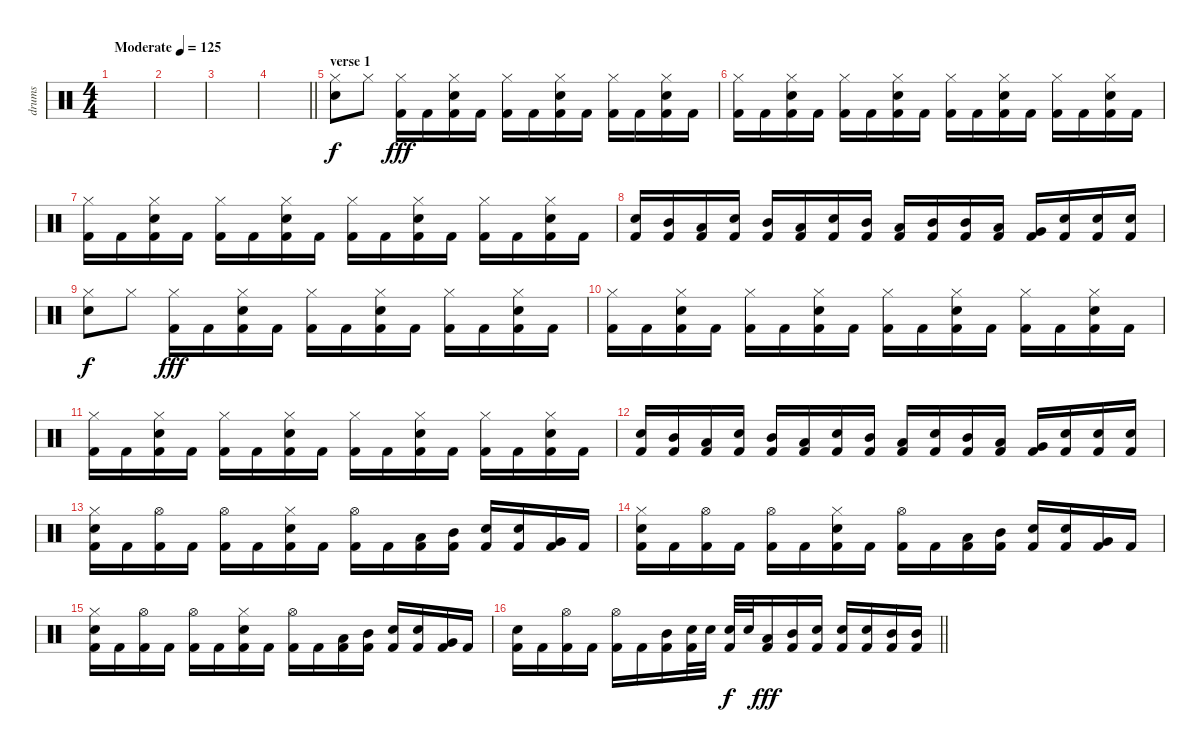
\track ("drums" "drums") {instrument percussion}
\staff {score}
\articulation defaults
\ts (4 4)
\tempo (125 "Moderate")
\clef neutral
\ks c
|
|
|
\barLineRight lightlight
|
\section ("" "verse 1")
("Electric Snare (hit)" "Hi-Hat (closed)").8 "Hi-Hat (closed)".8 ("Hi-Hat (closed)" "Kick (hit) 2").16{dy fff} "Kick (hit) 2".16 ("Electric Snare (hit)" "Hi-Hat (closed)" "Kick (hit) 2").16 "Kick (hit) 2".16 ("Hi-Hat (closed)" "Kick (hit) 2").16 "Kick (hit) 2".16 ("Electric Snare (hit)" "Hi-Hat (closed)" "Kick (hit) 2").16 "Kick (hit) 2".16 ("Hi-Hat (closed)" "Kick (hit) 2").16 "Kick (hit) 2".16 ("Electric Snare (hit)" "Hi-Hat (closed)" "Kick (hit) 2").16 "Kick (hit) 2".16 |
("Hi-Hat (closed)" "Kick (hit) 2").16 "Kick (hit) 2".16 ("Electric Snare (hit)" "Hi-Hat (closed)" "Kick (hit) 2").16 "Kick (hit) 2".16 ("Hi-Hat (closed)" "Kick (hit) 2").16 "Kick (hit) 2".16 ("Electric Snare (hit)" "Hi-Hat (closed)" "Kick (hit) 2").16 "Kick (hit) 2".16 ("Hi-Hat (closed)" "Kick (hit) 2").16 "Kick (hit) 2".16 ("Electric Snare (hit)" "Hi-Hat (closed)" "Kick (hit) 2").16 "Kick (hit) 2".16 ("Hi-Hat (closed)" "Kick (hit) 2").16 "Kick (hit) 2".16 ("Electric Snare (hit)" "Hi-Hat (closed)" "Kick (hit) 2").16 "Kick (hit) 2".16 |
("Hi-Hat (closed)" "Kick (hit) 2").16 "Kick (hit) 2".16 ("Electric Snare (hit)" "Hi-Hat (closed)" "Kick (hit) 2").16 "Kick (hit) 2".16 ("Hi-Hat (closed)" "Kick (hit) 2").16 "Kick (hit) 2".16 ("Electric Snare (hit)" "Hi-Hat (closed)" "Kick (hit) 2").16 "Kick (hit) 2".16 ("Hi-Hat (closed)" "Kick (hit) 2").16 "Kick (hit) 2".16 ("Electric Snare (hit)" "Hi-Hat (closed)" "Kick (hit) 2").16 "Kick (hit) 2".16 ("Hi-Hat (closed)" "Kick (hit) 2").16 "Kick (hit) 2".16 ("Electric Snare (hit)" "Hi-Hat (closed)" "Kick (hit) 2").16 "Kick (hit) 2".16 |
("Electric Snare (hit)" "Kick (hit) 2").16 ("Mid Tom (hit)" "Kick (hit) 2").16 ("Low Tom (hit)" "Kick (hit) 2").16 ("Electric Snare (hit)" "Kick (hit) 2").16 ("Mid Tom (hit)" "Kick (hit) 2").16 ("Low Tom (hit)" "Kick (hit) 2").16 ("Electric Snare (hit)" "Kick (hit) 2").16 ("Mid Tom (hit)" "Kick (hit) 2").16 ("Low Tom (hit)" "Kick (hit) 2").16 ("Mid Tom (hit)" "Kick (hit) 2").16 ("Mid Tom (hit)" "Kick (hit) 2").16 ("Low Tom (hit)" "Kick (hit) 2").16 ("Very Low Tom (hit)" "Kick (hit) 2").16 ("Electric Snare (hit)" "Kick (hit) 2").16 ("Electric Snare (hit)" "Kick (hit) 2").16 ("Electric Snare (hit)" "Kick (hit) 2").16 |
("Electric Snare (hit)" "Hi-Hat (closed)").8{dy f} "Hi-Hat (closed)".8 ("Hi-Hat (closed)" "Kick (hit) 2").16{dy fff} "Kick (hit) 2".16 ("Electric Snare (hit)" "Hi-Hat (closed)" "Kick (hit) 2").16 "Kick (hit) 2".16 ("Hi-Hat (closed)" "Kick (hit) 2").16 "Kick (hit) 2".16 ("Electric Snare (hit)" "Hi-Hat (closed)" "Kick (hit) 2").16 "Kick (hit) 2".16 ("Hi-Hat (closed)" "Kick (hit) 2").16 "Kick (hit) 2".16 ("Electric Snare (hit)" "Hi-Hat (closed)" "Kick (hit) 2").16 "Kick (hit) 2".16 |
("Hi-Hat (closed)" "Kick (hit) 2").16 "Kick (hit) 2".16 ("Electric Snare (hit)" "Hi-Hat (closed)" "Kick (hit) 2").16 "Kick (hit) 2".16 ("Hi-Hat (closed)" "Kick (hit) 2").16 "Kick (hit) 2".16 ("Electric Snare (hit)" "Hi-Hat (closed)" "Kick (hit) 2").16 "Kick (hit) 2".16 ("Hi-Hat (closed)" "Kick (hit) 2").16 "Kick (hit) 2".16 ("Electric Snare (hit)" "Hi-Hat (closed)" "Kick (hit) 2").16 "Kick (hit) 2".16 ("Hi-Hat (closed)" "Kick (hit) 2").16 "Kick (hit) 2".16 ("Electric Snare (hit)" "Hi-Hat (closed)" "Kick (hit) 2").16 "Kick (hit) 2".16 |
("Hi-Hat (closed)" "Kick (hit) 2").16 "Kick (hit) 2".16 ("Electric Snare (hit)" "Hi-Hat (closed)" "Kick (hit) 2").16 "Kick (hit) 2".16 ("Hi-Hat (closed)" "Kick (hit) 2").16 "Kick (hit) 2".16 ("Electric Snare (hit)" "Hi-Hat (closed)" "Kick (hit) 2").16 "Kick (hit) 2".16 ("Hi-Hat (closed)" "Kick (hit) 2").16 "Kick (hit) 2".16 ("Electric Snare (hit)" "Hi-Hat (closed)" "Kick (hit) 2").16 "Kick (hit) 2".16 ("Hi-Hat (closed)" "Kick (hit) 2").16 "Kick (hit) 2".16 ("Electric Snare (hit)" "Hi-Hat (closed)" "Kick (hit) 2").16 "Kick (hit) 2".16 |
("Electric Snare (hit)" "Kick (hit) 2").16 ("Mid Tom (hit)" "Kick (hit) 2").16 ("Low Tom (hit)" "Kick (hit) 2").16 ("Electric Snare (hit)" "Kick (hit) 2").16 ("Mid Tom (hit)" "Kick (hit) 2").16 ("Low Tom (hit)" "Kick (hit) 2").16 ("Electric Snare (hit)" "Kick (hit) 2").16 ("Mid Tom (hit)" "Kick (hit) 2").16 ("Low Tom (hit)" "Kick (hit) 2").16 ("Electric Snare (hit)" "Kick (hit) 2").16 ("Mid Tom (hit)" "Kick (hit) 2").16 ("Low Tom (hit)" "Kick (hit) 2").16 ("Very Low Tom (hit)" "Kick (hit) 2").16 ("Electric Snare (hit)" "Kick (hit) 2").16 ("Electric Snare (hit)" "Kick (hit) 2").16 ("Electric Snare (hit)" "Kick (hit) 2").16 |
("Electric Snare (hit)" "Hi-Hat (closed)" "Kick (hit) 2").16 "Kick (hit) 2".16 ("Hi-Hat (open)" "Kick (hit) 2").16 "Kick (hit) 2".16 ("Hi-Hat (open)" "Kick (hit) 2").16 "Kick (hit) 2".16 ("Electric Snare (hit)" "Hi-Hat (closed)" "Kick (hit) 2").16 "Kick (hit) 2".16 ("Hi-Hat (open)" "Kick (hit) 2").16 "Kick (hit) 2".16 ("Low Tom (hit)" "Kick (hit) 2").16 ("Mid Tom (hit)" "Kick (hit) 2").16 ("Electric Snare (hit)" "Kick (hit) 2").16 ("Electric Snare (hit)" "Kick (hit) 2").16 ("Very Low Tom (hit)" "Kick (hit) 2").16 "Kick (hit) 2".16 |
("Electric Snare (hit)" "Hi-Hat (closed)" "Kick (hit) 2").16 "Kick (hit) 2".16 ("Hi-Hat (open)" "Kick (hit) 2").16 "Kick (hit) 2".16 ("Hi-Hat (open)" "Kick (hit) 2").16 "Kick (hit) 2".16 ("Electric Snare (hit)" "Hi-Hat (closed)" "Kick (hit) 2").16 "Kick (hit) 2".16 ("Hi-Hat (open)" "Kick (hit) 2").16 "Kick (hit) 2".16 ("Low Tom (hit)" "Kick (hit) 2").16 ("Mid Tom (hit)" "Kick (hit) 2").16 ("Electric Snare (hit)" "Kick (hit) 2").16 ("Electric Snare (hit)" "Kick (hit) 2").16 ("Very Low Tom (hit)" "Kick (hit) 2").16 "Kick (hit) 2".16 |
("Electric Snare (hit)" "Hi-Hat (closed)" "Kick (hit) 2").16 "Kick (hit) 2".16 ("Hi-Hat (open)" "Kick (hit) 2").16 "Kick (hit) 2".16 ("Hi-Hat (open)" "Kick (hit) 2").16 "Kick (hit) 2".16 ("Electric Snare (hit)" "Hi-Hat (closed)" "Kick (hit) 2").16 "Kick (hit) 2".16 ("Hi-Hat (open)" "Kick (hit) 2").16 "Kick (hit) 2".16 ("Low Tom (hit)" "Kick (hit) 2").16 ("Mid Tom (hit)" "Kick (hit) 2").16 ("Electric Snare (hit)" "Kick (hit) 2").16 ("Electric Snare (hit)" "Kick (hit) 2").16 ("Very Low Tom (hit)" "Kick (hit) 2").16 "Kick (hit) 2".16 |
\barLineRight lightlight
("Electric Snare (hit)" "Kick (hit) 2").16 "Kick (hit) 2".16 ("Hi-Hat (open)" "Kick (hit) 2").16 "Kick (hit) 2".16 ("Hi-Hat (open)" "Kick (hit) 2").16 "Kick (hit) 2".16 ("Mid Tom (hit)" "Kick (hit) 2").16 ("Electric Snare (hit)" "Kick (hit) 2").32 "Electric Snare (hit)".32 ("Electric Snare (hit)" "Kick (hit) 2").32{dy f} "Electric Snare (hit)".32 ("Low Tom (hit)" "Kick (hit) 2").16{dy fff} ("Mid Tom (hit)" "Kick (hit) 2").16 ("Electric Snare (hit)" "Kick (hit) 2").16 ("Electric Snare (hit)" "Kick (hit) 2").16 ("Electric Snare (hit)" "Kick (hit) 2").16 ("Mid Tom (hit)" "Kick (hit) 2").16 ("Mid Tom (hit)" "Kick (hit) 2").16
